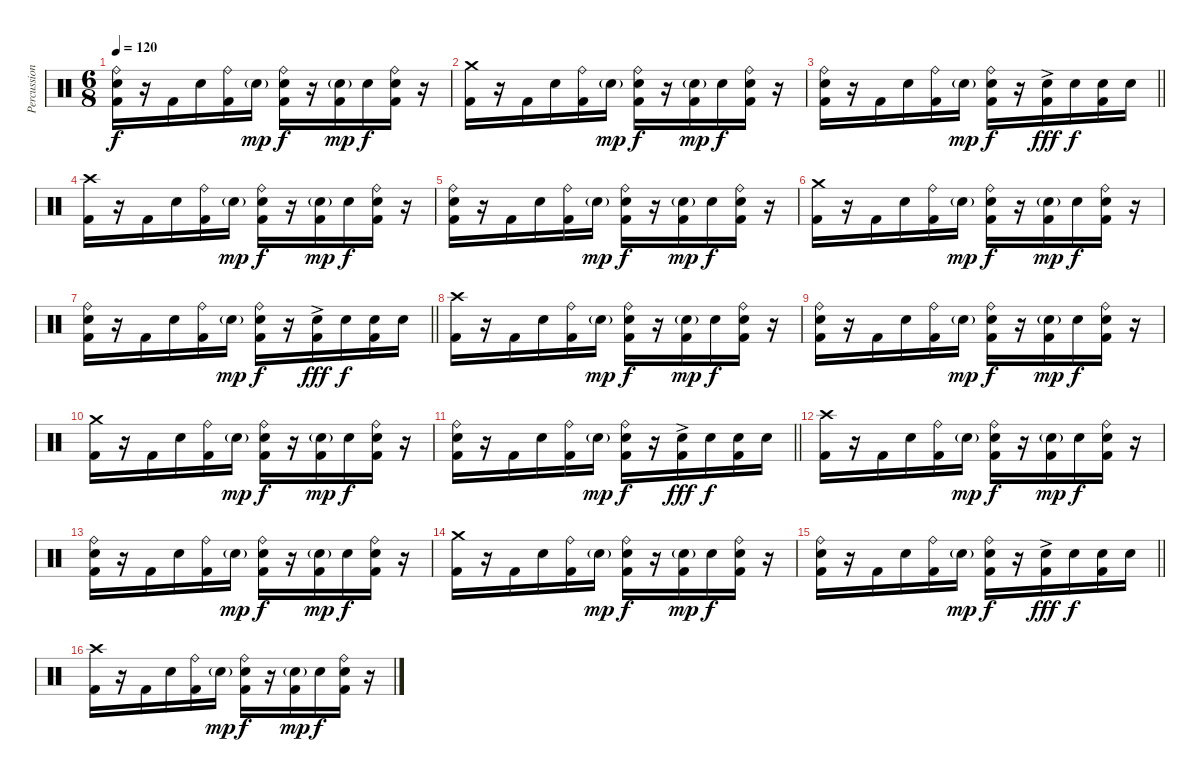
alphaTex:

\track ("Percussion" "Percussion") {instrument percussion}
\staff {score}
\articulation defaults
\ts (6 8)
\tempo 120
\clef neutral
\ks c
("Ride (bell)" "Snare (hit) 2" "Kick (hit) 2").16{dy f} r.16 "Kick (hit) 2".16 "Snare (hit) 2".16 ("Ride (bell)" "Kick (hit) 2").16 "Snare (hit) 2"{g}.16{dy mp} ("Ride (bell)" "Snare (hit) 2" "Kick (hit) 2").16{dy f} r.16 ("Snare (hit) 2"{g} "Kick (hit) 2").16{dy mp} "Snare (hit) 2".16{dy f} ("Ride (bell)" "Snare (hit) 2" "Kick (hit) 2").16 r.16 |
("Crash medium (hit)" "Kick (hit) 2").16 r.16 "Kick (hit) 2".16 "Snare (hit) 2".16 ("Ride (bell)" "Kick (hit) 2").16 "Snare (hit) 2"{g}.16{dy mp} ("Ride (bell)" "Snare (hit) 2" "Kick (hit) 2").16{dy f} r.16 ("Snare (hit) 2"{g} "Kick (hit) 2").16{dy mp} "Snare (hit) 2".16{dy f} ("Ride (bell)" "Snare (hit) 2" "Kick (hit) 2").16 r.16 |
\barLineRight lightlight
("Ride (bell)" "Snare (hit) 2" "Kick (hit) 2").16 r.16 "Kick (hit) 2".16 "Snare (hit) 2".16 ("Ride (bell)" "Kick (hit) 2").16 "Snare (hit) 2"{g}.16{dy mp} ("Ride (bell)" "Snare (hit) 2" "Kick (hit) 2").16{dy f} r.16 ("Snare (hit) 2"{ac} "Kick (hit) 2").16{dy fff} "Snare (hit) 2".16{dy f} ("Snare (hit) 2" "Kick (hit) 2").16 "Snare (hit) 2".16 |
("Crash high (hit)" "Kick (hit) 2").16 r.16 "Kick (hit) 2".16 "Snare (hit) 2".16 ("Ride (bell)" "Kick (hit) 2").16 "Snare (hit) 2"{g}.16{dy mp} ("Ride (bell)" "Snare (hit) 2" "Kick (hit) 2").16{dy f} r.16 ("Snare (hit) 2"{g} "Kick (hit) 2").16{dy mp} "Snare (hit) 2".16{dy f} ("Ride (bell)" "Snare (hit) 2" "Kick (hit) 2").16 r.16 |
("Ride (bell)" "Snare (hit) 2" "Kick (hit) 2").16 r.16 "Kick (hit) 2".16 "Snare (hit) 2".16 ("Ride (bell)" "Kick (hit) 2").16 "Snare (hit) 2"{g}.16{dy mp} ("Ride (bell)" "Snare (hit) 2" "Kick (hit) 2").16{dy f} r.16 ("Snare (hit) 2"{g} "Kick (hit) 2").16{dy mp} "Snare (hit) 2".16{dy f} ("Ride (bell)" "Snare (hit) 2" "Kick (hit) 2").16 r.16 |
("Crash medium (hit)" "Kick (hit) 2").16 r.16 "Kick (hit) 2".16 "Snare (hit) 2".16 ("Ride (bell)" "Kick (hit) 2").16 "Snare (hit) 2"{g}.16{dy mp} ("Ride (bell)" "Snare (hit) 2" "Kick (hit) 2").16{dy f} r.16 ("Snare (hit) 2"{g} "Kick (hit) 2").16{dy mp} "Snare (hit) 2".16{dy f} ("Ride (bell)" "Snare (hit) 2" "Kick (hit) 2").16 r.16 |
\barLineRight lightlight
("Ride (bell)" "Snare (hit) 2" "Kick (hit) 2").16 r.16 "Kick (hit) 2".16 "Snare (hit) 2".16 ("Ride (bell)" "Kick (hit) 2").16 "Snare (hit) 2"{g}.16{dy mp} ("Ride (bell)" "Snare (hit) 2" "Kick (hit) 2").16{dy f} r.16 ("Snare (hit) 2"{ac} "Kick (hit) 2").16{dy fff} "Snare (hit) 2".16{dy f} ("Snare (hit) 2" "Kick (hit) 2").16 "Snare (hit) 2".16 |
("Crash high (hit)" "Kick (hit) 2").16 r.16 "Kick (hit) 2".16 "Snare (hit) 2".16 ("Ride (bell)" "Kick (hit) 2").16 "Snare (hit) 2"{g}.16{dy mp} ("Ride (bell)" "Snare (hit) 2" "Kick (hit) 2").16{dy f} r.16 ("Snare (hit) 2"{g} "Kick (hit) 2").16{dy mp} "Snare (hit) 2".16{dy f} ("Ride (bell)" "Snare (hit) 2" "Kick (hit) 2").16 r.16 |
("Ride (bell)" "Snare (hit) 2" "Kick (hit) 2").16 r.16 "Kick (hit) 2".16 "Snare (hit) 2".16 ("Ride (bell)" "Kick (hit) 2").16 "Snare (hit) 2"{g}.16{dy mp} ("Ride (bell)" "Snare (hit) 2" "Kick (hit) 2").16{dy f} r.16 ("Snare (hit) 2"{g} "Kick (hit) 2").16{dy mp} "Snare (hit) 2".16{dy f} ("Ride (bell)" "Snare (hit) 2" "Kick (hit) 2").16 r.16 |
("Crash medium (hit)" "Kick (hit) 2").16 r.16 "Kick (hit) 2".16 "Snare (hit) 2".16 ("Ride (bell)" "Kick (hit) 2").16 "Snare (hit) 2"{g}.16{dy mp} ("Ride (bell)" "Snare (hit) 2" "Kick (hit) 2").16{dy f} r.16 ("Snare (hit) 2"{g} "Kick (hit) 2").16{dy mp} "Snare (hit) 2".16{dy f} ("Ride (bell)" "Snare (hit) 2" "Kick (hit) 2").16 r.16 |
\barLineRight lightlight
("Ride (bell)" "Snare (hit) 2" "Kick (hit) 2").16 r.16 "Kick (hit) 2".16 "Snare (hit) 2".16 ("Ride (bell)" "Kick (hit) 2").16 "Snare (hit) 2"{g}.16{dy mp} ("Ride (bell)" "Snare (hit) 2" "Kick (hit) 2").16{dy f} r.16 ("Snare (hit) 2"{ac} "Kick (hit) 2").16{dy fff} "Snare (hit) 2".16{dy f} ("Snare (hit) 2" "Kick (hit) 2").16 "Snare (hit) 2".16 |
("Crash high (hit)" "Kick (hit) 2").16 r.16 "Kick (hit) 2".16 "Snare (hit) 2".16 ("Ride (bell)" "Kick (hit) 2").16 "Snare (hit) 2"{g}.16{dy mp} ("Ride (bell)" "Snare (hit) 2" "Kick (hit) 2").16{dy f} r.16 ("Snare (hit) 2"{g} "Kick (hit) 2").16{dy mp} "Snare (hit) 2".16{dy f} ("Ride (bell)" "Snare (hit) 2" "Kick (hit) 2").16 r.16 |
("Ride (bell)" "Snare (hit) 2" "Kick (hit) 2").16 r.16 "Kick (hit) 2".16 "Snare (hit) 2".16 ("Ride (bell)" "Kick (hit) 2").16 "Snare (hit) 2"{g}.16{dy mp} ("Ride (bell)" "Snare (hit) 2" "Kick (hit) 2").16{dy f} r.16 ("Snare (hit) 2"{g} "Kick (hit) 2").16{dy mp} "Snare (hit) 2".16{dy f} ("Ride (bell)" "Snare (hit) 2" "Kick (hit) 2").16 r.16 |
("Crash medium (hit)" "Kick (hit) 2").16 r.16 "Kick (hit) 2".16 "Snare (hit) 2".16 ("Ride (bell)" "Kick (hit) 2").16 "Snare (hit) 2"{g}.16{dy mp} ("Ride (bell)" "Snare (hit) 2" "Kick (hit) 2").16{dy f} r.16 ("Snare (hit) 2"{g} "Kick (hit) 2").16{dy mp} "Snare (hit) 2".16{dy f} ("Ride (bell)" "Snare (hit) 2" "Kick (hit) 2").16 r.16 |
\barLineRight lightlight
("Ride (bell)" "Snare (hit) 2" "Kick (hit) 2").16 r.16 "Kick (hit) 2".16 "Snare (hit) 2".16 ("Ride (bell)" "Kick (hit) 2").16 "Snare (hit) 2"{g}.16{dy mp} ("Ride (bell)" "Snare (hit) 2" "Kick (hit) 2").16{dy f} r.16 ("Snare (hit) 2"{ac} "Kick (hit) 2").16{dy fff} "Snare (hit) 2".16{dy f} ("Snare (hit) 2" "Kick (hit) 2").16 "Snare (hit) 2".16 |
("Crash high (hit)" "Kick (hit) 2").16 r.16 "Kick (hit) 2".16 "Snare (hit) 2".16 ("Ride (bell)" "Kick (hit) 2").16 "Snare (hit) 2"{g}.16{dy mp} ("Ride (bell)" "Snare (hit) 2" "Kick (hit) 2").16{dy f} r.16 ("Snare (hit) 2"{g} "Kick (hit) 2").16{dy mp} "Snare (hit) 2".16{dy f} ("Ride (bell)" "Snare (hit) 2" "Kick (hit) 2").16 r.16
